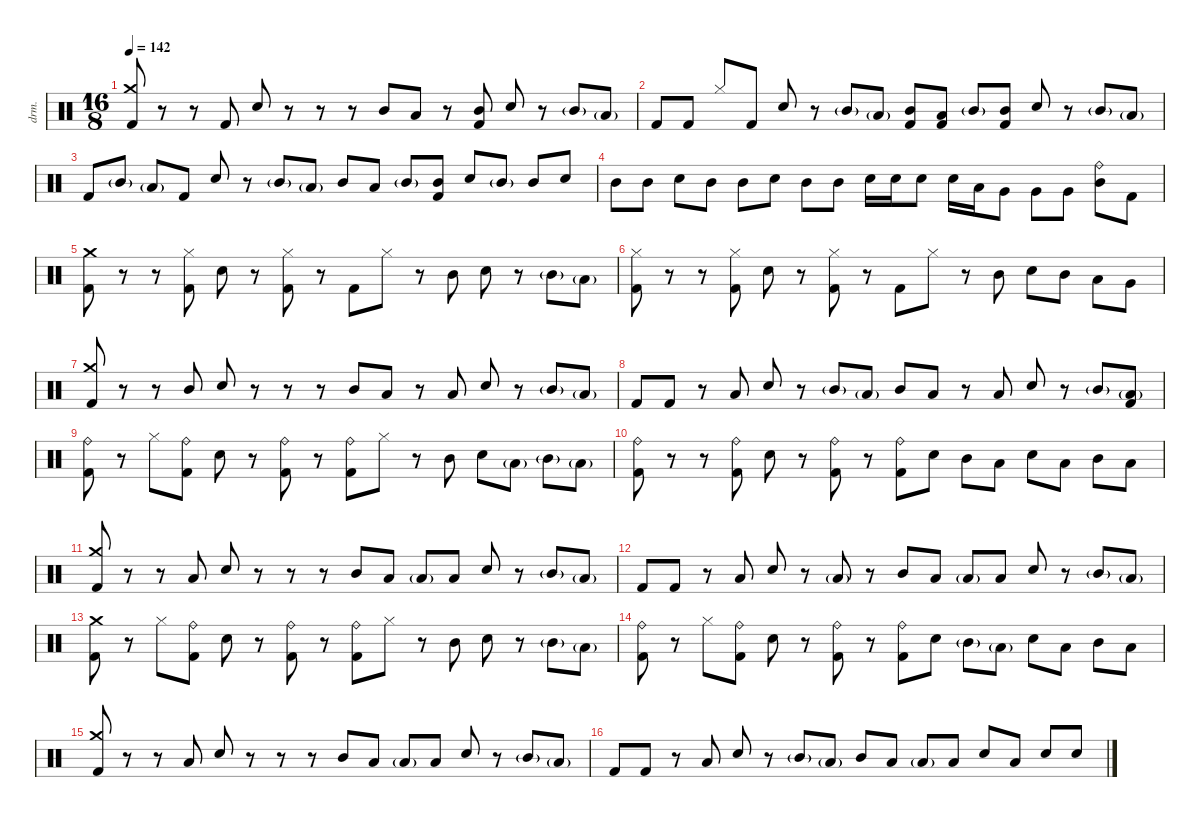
\defaultSystemsLayout 4
\hideDynamics
\bracketExtendMode nobrackets
\otherSystemsTrackNameOrientation horizontal
\track ("Drums" "drm.") {instrument percussion}
\staff {score}
\articulation defaults
\ts (16 8)
\tempo 142
\clef neutral
\ks c
("Crash medium (hit)" "Kick (hit) 2").8{dy f beam Up} r.8{beam Up} r.8{beam Up} "Kick (hit) 2".8{beam Up} "Snare (hit) 2".8{beam Up} r.8{beam Up} r.8{beam Up} r.8{beam Up} "Mid Tom (hit)".8{beam Up} "Low Tom (hit)".8{beam Up} r.8{beam Up} ("Mid Tom (hit)" "Kick (hit) 2").8{beam Up} "Snare (hit) 2".8{beam Up} r.8{beam Up} "Mid Tom (hit)"{g}.8{dy pp beam Up} "Low Tom (hit)"{g}.8{beam Up} |
"Kick (hit) 2".8{dy f beam Up} "Kick (hit) 2".8{beam Up} "Hi-Hat (closed)".8{dy mp beam Up} "Kick (hit) 2".8{dy f beam Up} "Snare (hit) 2".8{beam Up} r.8{beam Up} "Mid Tom (hit)"{g}.8{dy pp beam Up} "Low Tom (hit)"{g}.8{beam Up} ("Mid Tom (hit)" "Kick (hit) 2").8{dy f beam Up} ("Low Tom (hit)" "Kick (hit) 2").8{beam Up} "Mid Tom (hit)"{g}.8{dy pp beam Up} ("Mid Tom (hit)" "Kick (hit) 2").8{dy f beam Up} "Snare (hit) 2".8{beam Up} r.8{beam Up} "Mid Tom (hit)"{g}.8{dy pp beam Up} "Low Tom (hit)"{g}.8{beam Up} |
"Kick (hit) 2".8{dy f beam Up} "Mid Tom (hit)"{g}.8{dy pp beam Up} "Low Tom (hit)"{g}.8{beam Up} "Kick (hit) 2".8{dy f beam Up} "Snare (hit) 2".8{beam Up} r.8{beam Up} "Mid Tom (hit)"{g}.8{dy pp beam Up} "Low Tom (hit)"{g}.8{beam Up} "Mid Tom (hit)".8{dy f beam Up} "Low Tom (hit)".8{beam Up} "Mid Tom (hit)"{g}.8{dy pp beam Up} ("Mid Tom (hit)" "Kick (hit) 2").8{dy f beam Up} "Snare (hit) 2".8{beam Up} "Mid Tom (hit)"{g}.8{dy pp beam Up} "Mid Tom (hit)".8{dy f beam Up} "Snare (hit) 2".8{beam Up} |
"Mid Tom (hit)".8{dy mp beam Down} "Mid Tom (hit)".8{dy mf beam Down} "Snare (hit) 2".8{dy f beam Down} "Mid Tom (hit)".8{dy mp beam Down} "Mid Tom (hit)".8{dy mf beam Down} "Snare (hit) 2".8{dy f beam Down} "Mid Tom (hit)".8{dy mp beam Down} "Mid Tom (hit)".8{dy mf beam Down} "Snare (hit) 2".16{dy f beam Down} "Snare (hit) 2".16{beam Down} "Snare (hit) 2".8{beam Down} "Snare (hit) 2".16{beam Down} "Low Tom (hit)".16{beam Down} "Very Low Tom (hit)".8{beam Down} "Very Low Tom (hit)".8{beam Down} "Very Low Tom (hit)".8{beam Down} ("Ride (bell)" "Mid Tom (hit)").8{beam Down} "Kick (hit) 2".8{beam Down} |
("Crash medium (hit)" "Kick (hit) 2").8{beam Down} r.8{beam Down} r.8{beam Down} ("Hi-Hat (closed)" "Kick (hit) 2").8{beam Down} "Snare (hit) 2".8{beam Down} r.8{beam Down} ("Hi-Hat (closed)" "Kick (hit) 2").8{beam Down} r.8{beam Down} "Kick (hit) 2".8{beam Down} "Hi-Hat (closed)".8{beam Down} r.8{beam Down} "Mid Tom (hit)".8{beam Down} "Snare (hit) 2".8{beam Down} r.8{beam Down} "Mid Tom (hit)"{g}.8{dy pp beam Down} "Low Tom (hit)"{g}.8{beam Down} |
("Hi-Hat (closed)" "Kick (hit) 2").8{dy f beam Down} r.8{beam Down} r.8{beam Down} ("Hi-Hat (closed)" "Kick (hit) 2").8{beam Down} "Snare (hit) 2".8{beam Down} r.8{beam Down} ("Hi-Hat (closed)" "Kick (hit) 2").8{beam Down} r.8{beam Down} "Kick (hit) 2".8{beam Down} "Hi-Hat (closed)".8{beam Down} r.8{beam Down} "Mid Tom (hit)".8{beam Down} "Snare (hit) 2".8{beam Down} "Mid Tom (hit)".8{beam Down} "Low Tom (hit)".8{beam Down} "Very Low Tom (hit)".8{beam Down} |
("Crash medium (hit)" "Kick (hit) 2").8{beam Up} r.8{beam Up} r.8{beam Up} "Mid Tom (hit)".8{beam Up} "Snare (hit) 2".8{beam Up} r.8{beam Up} r.8{beam Up} r.8{beam Up} "Mid Tom (hit)".8{beam Up} "Low Tom (hit)".8{beam Up} r.8{beam Up} "Low Tom (hit)".8{beam Up} "Snare (hit) 2".8{beam Up} r.8{beam Up} "Mid Tom (hit)"{g}.8{dy pp beam Up} "Low Tom (hit)"{g}.8{beam Up} |
"Kick (hit) 2".8{dy f beam Up} "Kick (hit) 2".8{beam Up} r.8{beam Up} "Low Tom (hit)".8{beam Up} "Snare (hit) 2".8{beam Up} r.8{beam Up} "Mid Tom (hit)"{g}.8{dy pp beam Up} "Low Tom (hit)"{g}.8{beam Up} "Mid Tom (hit)".8{dy f beam Up} "Low Tom (hit)".8{beam Up} r.8{beam Up} "Low Tom (hit)".8{beam Up} "Snare (hit) 2".8{beam Up} r.8{beam Up} "Mid Tom (hit)"{g}.8{dy pp beam Up} ("Low Tom (hit)"{g} "Kick (hit) 2").8{dy f beam Up} |
("Ride (bell)" "Kick (hit) 2").8{beam Down} r.8{beam Down} "Hi-Hat (closed)".8{beam Down} ("Ride (bell)" "Kick (hit) 2").8{beam Down} "Snare (hit) 2".8{beam Down} r.8{beam Down} ("Ride (bell)" "Kick (hit) 2").8{beam Down} r.8{beam Down} ("Ride (bell)" "Kick (hit) 2").8{beam Down} "Hi-Hat (closed)".8{beam Down} r.8{beam Down} "Mid Tom (hit)".8{beam Down} "Snare (hit) 2".8{beam Down} "Low Tom (hit)"{g}.8{dy pp beam Down} "Mid Tom (hit)"{g}.8{beam Down} "Low Tom (hit)"{g}.8{beam Down} |
("Ride (bell)" "Kick (hit) 2").8{dy f beam Down} r.8{beam Down} r.8{beam Down} ("Ride (bell)" "Kick (hit) 2").8{beam Down} "Snare (hit) 2".8{beam Down} r.8{beam Down} ("Ride (bell)" "Kick (hit) 2").8{beam Down} r.8{beam Down} ("Ride (bell)" "Kick (hit) 2").8{beam Down} "Snare (hit) 2".8{beam Down} "Mid Tom (hit)".8{dy mp beam Down} "Low Tom (hit)".8{beam Down} "Snare (hit) 2".8{dy f beam Down} "Low Tom (hit)".8{dy mp beam Down} "Mid Tom (hit)".8{beam Down} "Low Tom (hit)".8{beam Down} |
("Crash medium (hit)" "Kick (hit) 2").8{dy f beam Up} r.8{beam Up} r.8{beam Up} "Low Tom (hit)".8{beam Up} "Snare (hit) 2".8{beam Up} r.8{beam Up} r.8{beam Up} r.8{beam Up} "Mid Tom (hit)".8{beam Up} "Low Tom (hit)".8{beam Up} "Low Tom (hit)"{g}.8{dy pp beam Up} "Low Tom (hit)".8{dy f beam Up} "Snare (hit) 2".8{beam Up} r.8{beam Up} "Mid Tom (hit)"{g}.8{dy pp beam Up} "Low Tom (hit)"{g}.8{beam Up} |
"Kick (hit) 2".8{dy f beam Up} "Kick (hit) 2".8{beam Up} r.8{beam Up} "Low Tom (hit)".8{beam Up} "Snare (hit) 2".8{beam Up} r.8{beam Up} "Low Tom (hit)"{g}.8{dy pp beam Up} r.8{beam Up} "Mid Tom (hit)".8{dy f beam Up} "Low Tom (hit)".8{beam Up} "Low Tom (hit)"{g}.8{dy pp beam Up} "Low Tom (hit)".8{dy f beam Up} "Snare (hit) 2".8{beam Up} r.8{beam Up} "Mid Tom (hit)"{g}.8{dy pp beam Up} "Low Tom (hit)"{g}.8{beam Up} |
("Crash medium (hit)" "Kick (hit) 2").8{dy f beam Down} r.8{beam Down} "Hi-Hat (closed)".8{beam Down} ("Ride (bell)" "Kick (hit) 2").8{beam Down} "Snare (hit) 2".8{beam Down} r.8{beam Down} ("Ride (bell)" "Kick (hit) 2").8{beam Down} r.8{beam Down} ("Ride (bell)" "Kick (hit) 2").8{beam Down} "Hi-Hat (closed)".8{beam Down} r.8{beam Down} "Mid Tom (hit)".8{beam Down} "Snare (hit) 2".8{beam Down} r.8{beam Down} "Mid Tom (hit)"{g}.8{dy pp beam Down} "Low Tom (hit)"{g}.8{beam Down} |
("Ride (bell)" "Kick (hit) 2").8{dy f beam Down} r.8{beam Down} "Hi-Hat (closed)".8{beam Down} ("Ride (bell)" "Kick (hit) 2").8{beam Down} "Snare (hit) 2".8{beam Down} r.8{beam Down} ("Ride (bell)" "Kick (hit) 2").8{beam Down} r.8{beam Down} ("Ride (bell)" "Kick (hit) 2").8{beam Down} "Snare (hit) 2".8{beam Down} "Mid Tom (hit)"{g}.8{dy pp beam Down} "Low Tom (hit)"{g}.8{beam Down} "Snare (hit) 2".8{dy f beam Down} "Low Tom (hit)".8{dy mp beam Down} "Mid Tom (hit)".8{beam Down} "Low Tom (hit)".8{beam Down} |
("Crash medium (hit)" "Kick (hit) 2").8{dy f beam Up} r.8{beam Up} r.8{beam Up} "Low Tom (hit)".8{beam Up} "Snare (hit) 2".8{beam Up} r.8{beam Up} r.8{beam Up} r.8{beam Up} "Mid Tom (hit)".8{beam Up} "Low Tom (hit)".8{beam Up} "Low Tom (hit)"{g}.8{dy pp beam Up} "Low Tom (hit)".8{dy f beam Up} "Snare (hit) 2".8{beam Up} r.8{beam Up} "Mid Tom (hit)"{g}.8{dy pp beam Up} "Low Tom (hit)"{g}.8{beam Up} |
"Kick (hit) 2".8{dy f beam Up} "Kick (hit) 2".8{beam Up} r.8{beam Up} "Low Tom (hit)".8{beam Up} "Snare (hit) 2".8{beam Up} r.8{beam Up} "Mid Tom (hit)"{g}.8{dy pp beam Up} "Low Tom (hit)"{g}.8{beam Up} "Mid Tom (hit)".8{dy f beam Up} "Low Tom (hit)".8{beam Up} "Low Tom (hit)"{g}.8{dy pp beam Up} "Low Tom (hit)".8{dy f beam Up} "Snare (hit) 2".8{beam Up} "Low Tom (hit)".8{beam Up} "Snare (hit) 2".8{beam Up} "Snare (hit) 2".8{beam Up}
